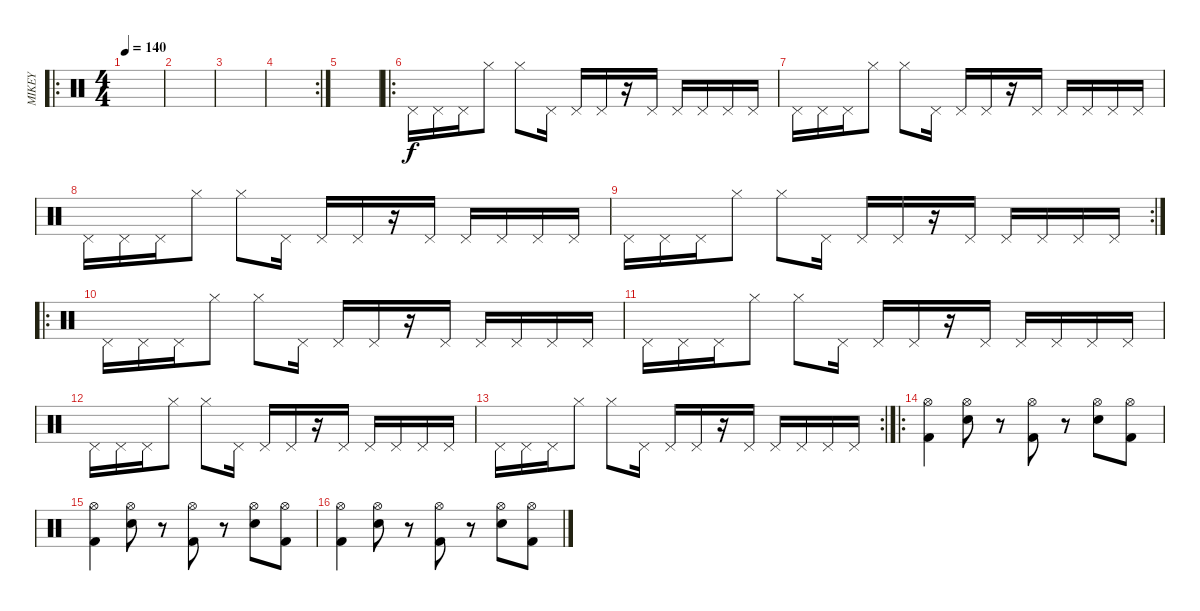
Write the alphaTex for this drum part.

\track ("MIKEY" "MIKEY") {instrument percussion}
\staff {score}
\articulation defaults
\ro
\ts (4 4)
\tempo 140
\clef neutral
\ks c
|
|
|
\rc 2
|
|
\ro "Pedal Hi-Hat (hit)".16 "Pedal Hi-Hat (hit)".16 "Pedal Hi-Hat (hit)".16 "Hi-Hat (closed)".8 "Hi-Hat (closed)".8 "Pedal Hi-Hat (hit)".16 "Pedal Hi-Hat (hit)".16 "Pedal Hi-Hat (hit)".16
r.16 "Pedal Hi-Hat (hit)".16 "Pedal Hi-Hat (hit)".16 "Pedal Hi-Hat (hit)".16 "Pedal Hi-Hat (hit)".16 "Pedal Hi-Hat (hit)".16 |
"Pedal Hi-Hat (hit)".16 "Pedal Hi-Hat (hit)".16 "Pedal Hi-Hat (hit)".16 "Hi-Hat (closed)".8 "Hi-Hat (closed)".8 "Pedal Hi-Hat (hit)".16 "Pedal Hi-Hat (hit)".16 "Pedal Hi-Hat (hit)".16 r.16 "Pedal Hi-Hat (hit)".16 "Pedal Hi-Hat (hit)".16 "Pedal Hi-Hat (hit)".16 "Pedal Hi-Hat (hit)".16 "Pedal Hi-Hat (hit)".16 |
"Pedal Hi-Hat (hit)".16 "Pedal Hi-Hat (hit)".16 "Pedal Hi-Hat (hit)".16 "Hi-Hat (closed)".8 "Hi-Hat (closed)".8 "Pedal Hi-Hat (hit)".16 "Pedal Hi-Hat (hit)".16 "Pedal Hi-Hat (hit)".16 r.16 "Pedal Hi-Hat (hit)".16 "Pedal Hi-Hat (hit)".16 "Pedal Hi-Hat (hit)".16 "Pedal Hi-Hat (hit)".16 "Pedal Hi-Hat (hit)".16 |
\rc 2 "Pedal Hi-Hat (hit)".16 "Pedal Hi-Hat (hit)".16 "Pedal Hi-Hat (hit)".16 "Hi-Hat (closed)".8 "Hi-Hat (closed)".8 "Pedal Hi-Hat (hit)".16 "Pedal Hi-Hat (hit)".16 "Pedal Hi-Hat (hit)".16
r.16 "Pedal Hi-Hat (hit)".16 "Pedal Hi-Hat (hit)".16 "Pedal Hi-Hat (hit)".16 "Pedal Hi-Hat (hit)".16 "Pedal Hi-Hat (hit)".16 |
\ro "Pedal Hi-Hat (hit)".16 "Pedal Hi-Hat (hit)".16 "Pedal Hi-Hat (hit)".16 "Hi-Hat (closed)".8 "Hi-Hat (closed)".8 "Pedal Hi-Hat (hit)".16 "Pedal Hi-Hat (hit)".16 "Pedal Hi-Hat (hit)".16
r.16 "Pedal Hi-Hat (hit)".16 "Pedal Hi-Hat (hit)".16 "Pedal Hi-Hat (hit)".16 "Pedal Hi-Hat (hit)".16 "Pedal Hi-Hat (hit)".16 |
"Pedal Hi-Hat (hit)".16 "Pedal Hi-Hat (hit)".16 "Pedal Hi-Hat (hit)".16 "Hi-Hat (closed)".8 "Hi-Hat (closed)".8 "Pedal Hi-Hat (hit)".16 "Pedal Hi-Hat (hit)".16 "Pedal Hi-Hat (hit)".16 r.16 "Pedal Hi-Hat (hit)".16 "Pedal Hi-Hat (hit)".16 "Pedal Hi-Hat (hit)".16 "Pedal Hi-Hat (hit)".16 "Pedal Hi-Hat (hit)".16 |
"Pedal Hi-Hat (hit)".16 "Pedal Hi-Hat (hit)".16 "Pedal Hi-Hat (hit)".16 "Hi-Hat (closed)".8 "Hi-Hat (closed)".8 "Pedal Hi-Hat (hit)".16 "Pedal Hi-Hat (hit)".16 "Pedal Hi-Hat (hit)".16 r.16 "Pedal Hi-Hat (hit)".16 "Pedal Hi-Hat (hit)".16 "Pedal Hi-Hat (hit)".16 "Pedal Hi-Hat (hit)".16 "Pedal Hi-Hat (hit)".16 |
\rc 2 "Pedal Hi-Hat (hit)".16 "Pedal Hi-Hat (hit)".16 "Pedal Hi-Hat (hit)".16 "Hi-Hat (closed)".8 "Hi-Hat (closed)".8 "Pedal Hi-Hat (hit)".16 "Pedal Hi-Hat (hit)".16 "Pedal Hi-Hat (hit)".16
r.16 "Pedal Hi-Hat (hit)".16 "Pedal Hi-Hat (hit)".16 "Pedal Hi-Hat (hit)".16 "Pedal Hi-Hat (hit)".16 "Pedal Hi-Hat (hit)".16 |
\ro
("Hi-Hat (open)" "Kick (hit) 2").4 ("Hi-Hat (open)" "Electric Snare (hit)").8 r.8 ("Hi-Hat (open)" "Kick (hit) 2").8 r.8 ("Hi-Hat (open)" "Electric Snare (hit)").8 ("Hi-Hat (open)" "Kick (hit) 2").8 |
("Hi-Hat (open)" "Kick (hit) 2").4 ("Hi-Hat (open)" "Electric Snare (hit)").8 r.8 ("Hi-Hat (open)" "Kick (hit) 2").8 r.8 ("Hi-Hat (open)" "Electric Snare (hit)").8 ("Hi-Hat (open)" "Kick (hit) 2").8 |
("Hi-Hat (open)" "Kick (hit) 2").4 ("Hi-Hat (open)" "Electric Snare (hit)").8 r.8 ("Hi-Hat (open)" "Kick (hit) 2").8 r.8 ("Hi-Hat (open)" "Electric Snare (hit)").8 ("Hi-Hat (open)" "Kick (hit) 2").8
